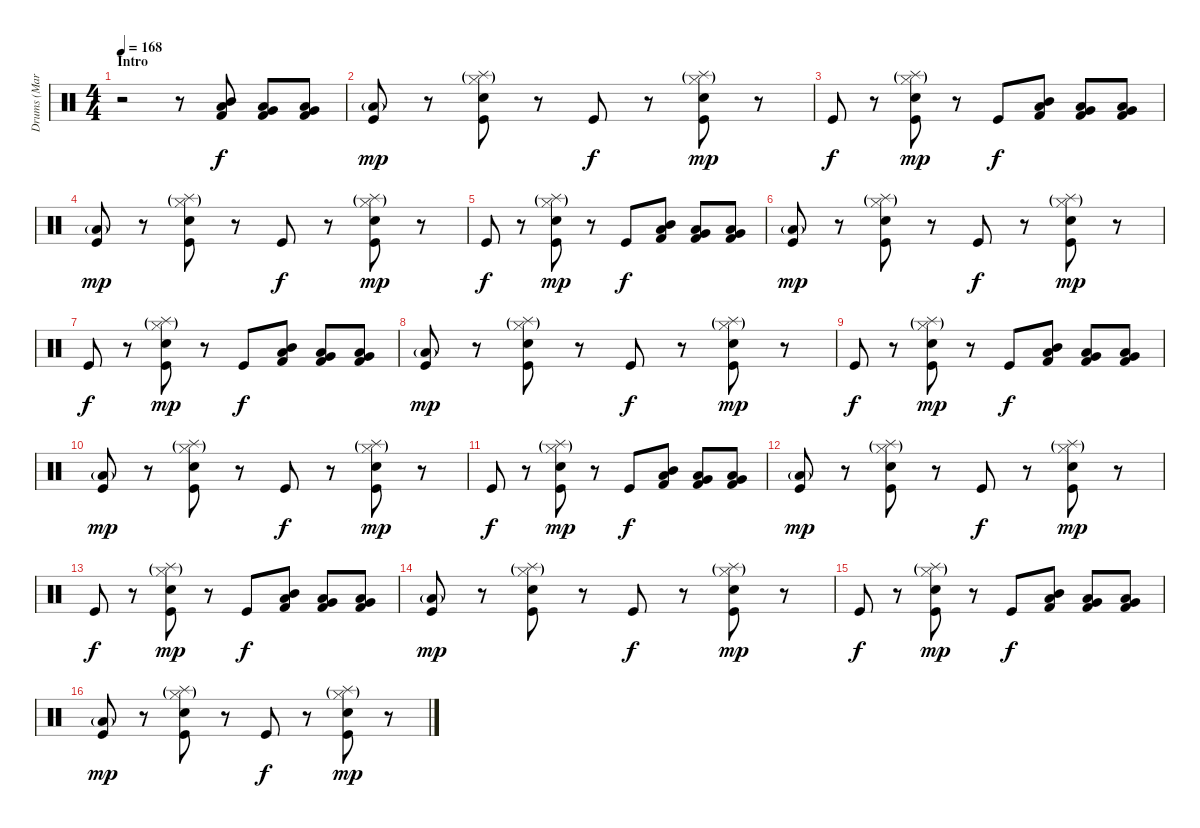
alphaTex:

\track ("Drums (Mark Michals)" "Drums (Mar") {instrument percussion}
\staff {score}
\articulation defaults
\ts (4 4)
\section ("" "Intro")
\tempo 168
\clef neutral
\ks c
r.2{dy f} r.8 ("Low Tom (hit)" "Mid Tom (hit)" "Kick (hit) 2").8 ("Very Low Tom (hit)" "Low Tom (hit)" "Kick (hit) 2").8 ("Low Floor Tom (hit)" "Very Low Tom (hit)" "Kick (hit) 2").8 |
("Low Floor Tom (hit)"{g} "Kick (hit)").8{dy mp} r.8 ("Hi-Hat (closed)"{g} "Snare (hit) 2" "Splash (hit)"{g} "Kick (hit)").8 r.8 "Kick (hit)".8{dy f} r.8 ("Hi-Hat (closed)"{g} "Snare (hit) 2" "Splash (hit)"{g} "Kick (hit)").8{dy mp} r.8 |
"Kick (hit)".8{dy f} r.8 ("Hi-Hat (closed)"{g} "Snare (hit) 2" "Splash (hit)"{g} "Kick (hit)").8{dy mp} r.8 "Kick (hit)".8{dy f} ("Low Tom (hit)" "Mid Tom (hit)" "Kick (hit) 2").8 ("Very Low Tom (hit)" "Low Tom (hit)" "Kick (hit) 2").8 ("Low Floor Tom (hit)" "Very Low Tom (hit)" "Kick (hit) 2").8 |
("Low Floor Tom (hit)"{g} "Kick (hit)").8{dy mp} r.8 ("Hi-Hat (closed)"{g} "Snare (hit) 2" "Splash (hit)"{g} "Kick (hit)").8 r.8 "Kick (hit)".8{dy f} r.8 ("Hi-Hat (closed)"{g} "Snare (hit) 2" "Splash (hit)"{g} "Kick (hit)").8{dy mp} r.8 |
"Kick (hit)".8{dy f} r.8 ("Hi-Hat (closed)"{g} "Snare (hit) 2" "Splash (hit)"{g} "Kick (hit)").8{dy mp} r.8 "Kick (hit)".8{dy f} ("Low Tom (hit)" "Mid Tom (hit)" "Kick (hit) 2").8 ("Very Low Tom (hit)" "Low Tom (hit)" "Kick (hit) 2").8 ("Low Floor Tom (hit)" "Very Low Tom (hit)" "Kick (hit) 2").8 |
("Low Floor Tom (hit)"{g} "Kick (hit)").8{dy mp} r.8 ("Hi-Hat (closed)"{g} "Snare (hit) 2" "Splash (hit)"{g} "Kick (hit)").8 r.8 "Kick (hit)".8{dy f} r.8 ("Hi-Hat (closed)"{g} "Snare (hit) 2" "Splash (hit)"{g} "Kick (hit)").8{dy mp} r.8 |
"Kick (hit)".8{dy f} r.8 ("Hi-Hat (closed)"{g} "Snare (hit) 2" "Splash (hit)"{g} "Kick (hit)").8{dy mp} r.8 "Kick (hit)".8{dy f} ("Low Tom (hit)" "Mid Tom (hit)" "Kick (hit) 2").8 ("Very Low Tom (hit)" "Low Tom (hit)" "Kick (hit) 2").8 ("Low Floor Tom (hit)" "Very Low Tom (hit)" "Kick (hit) 2").8 |
("Low Floor Tom (hit)"{g} "Kick (hit)").8{dy mp} r.8 ("Hi-Hat (closed)"{g} "Snare (hit) 2" "Splash (hit)"{g} "Kick (hit)").8 r.8 "Kick (hit)".8{dy f} r.8 ("Hi-Hat (closed)"{g} "Snare (hit) 2" "Splash (hit)"{g} "Kick (hit)").8{dy mp} r.8 |
"Kick (hit)".8{dy f} r.8 ("Hi-Hat (closed)"{g} "Snare (hit) 2" "Splash (hit)"{g} "Kick (hit)").8{dy mp} r.8 "Kick (hit)".8{dy f} ("Low Tom (hit)" "Mid Tom (hit)" "Kick (hit) 2").8 ("Very Low Tom (hit)" "Low Tom (hit)" "Kick (hit) 2").8 ("Low Floor Tom (hit)" "Very Low Tom (hit)" "Kick (hit) 2").8 |
("Low Floor Tom (hit)"{g} "Kick (hit)").8{dy mp} r.8 ("Hi-Hat (closed)"{g} "Snare (hit) 2" "Splash (hit)"{g} "Kick (hit)").8 r.8 "Kick (hit)".8{dy f} r.8 ("Hi-Hat (closed)"{g} "Snare (hit) 2" "Splash (hit)"{g} "Kick (hit)").8{dy mp} r.8 |
"Kick (hit)".8{dy f} r.8 ("Hi-Hat (closed)"{g} "Snare (hit) 2" "Splash (hit)"{g} "Kick (hit)").8{dy mp} r.8 "Kick (hit)".8{dy f} ("Low Tom (hit)" "Mid Tom (hit)" "Kick (hit) 2").8 ("Very Low Tom (hit)" "Low Tom (hit)" "Kick (hit) 2").8 ("Low Floor Tom (hit)" "Very Low Tom (hit)" "Kick (hit) 2").8 |
("Low Floor Tom (hit)"{g} "Kick (hit)").8{dy mp} r.8 ("Hi-Hat (closed)"{g} "Snare (hit) 2" "Splash (hit)"{g} "Kick (hit)").8 r.8 "Kick (hit)".8{dy f} r.8 ("Hi-Hat (closed)"{g} "Snare (hit) 2" "Splash (hit)"{g} "Kick (hit)").8{dy mp} r.8 |
"Kick (hit)".8{dy f} r.8 ("Hi-Hat (closed)"{g} "Snare (hit) 2" "Splash (hit)"{g} "Kick (hit)").8{dy mp} r.8 "Kick (hit)".8{dy f} ("Low Tom (hit)" "Mid Tom (hit)" "Kick (hit) 2").8 ("Very Low Tom (hit)" "Low Tom (hit)" "Kick (hit) 2").8 ("Low Floor Tom (hit)" "Very Low Tom (hit)" "Kick (hit) 2").8 |
("Low Floor Tom (hit)"{g} "Kick (hit)").8{dy mp} r.8 ("Hi-Hat (closed)"{g} "Snare (hit) 2" "Splash (hit)"{g} "Kick (hit)").8 r.8 "Kick (hit)".8{dy f} r.8 ("Hi-Hat (closed)"{g} "Snare (hit) 2" "Splash (hit)"{g} "Kick (hit)").8{dy mp} r.8 |
"Kick (hit)".8{dy f} r.8 ("Hi-Hat (closed)"{g} "Snare (hit) 2" "Splash (hit)"{g} "Kick (hit)").8{dy mp} r.8 "Kick (hit)".8{dy f} ("Low Tom (hit)" "Mid Tom (hit)" "Kick (hit) 2").8 ("Very Low Tom (hit)" "Low Tom (hit)" "Kick (hit) 2").8 ("Low Floor Tom (hit)" "Very Low Tom (hit)" "Kick (hit) 2").8 |
("Low Floor Tom (hit)"{g} "Kick (hit)").8{dy mp} r.8 ("Hi-Hat (closed)"{g} "Snare (hit) 2" "Splash (hit)"{g} "Kick (hit)").8 r.8 "Kick (hit)".8{dy f} r.8 ("Hi-Hat (closed)"{g} "Snare (hit) 2" "Splash (hit)"{g} "Kick (hit)").8{dy mp} r.8
